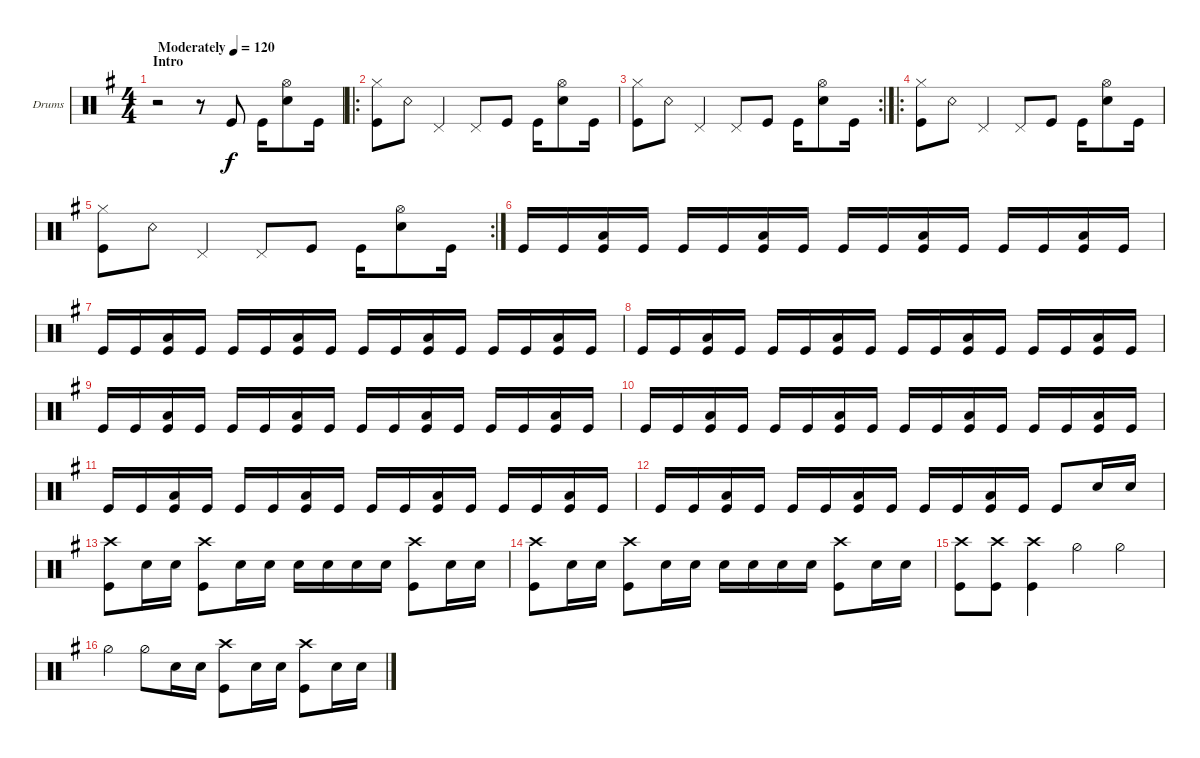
\defaultSystemsLayout 4
\bracketExtendMode groupsimilarinstruments
\firstSystemTrackNameOrientation horizontal
\otherSystemsTrackNameOrientation horizontal
\track ("Drums" "Drums") {instrument percussion}
\staff {score}
\articulation defaults
\ts (4 4)
\section ("" "Intro")
\tempo (120 "Moderately")
\clef neutral
\scale
0.465587
\ks g
r.2{dy f} r.8 "Kick (hit)".8 "Kick (hit)".16 ("Snare (hit) 2" "Hi-Hat (open)").8 "Kick (hit)".16 |
\ro
\scale
0.279352 ("Kick (hit)" "Hi-Hat (closed)").8 "Snare (rim shot)".8 "Pedal Hi-Hat (hit)".4 "Pedal Hi-Hat (hit)".8 "Kick (hit)".8 "Kick (hit)".16 ("Snare (hit) 2" "Hi-Hat (open)").8 "Kick (hit)".16 |
\rc 2
\scale
0.255061 ("Kick (hit)" "Hi-Hat (closed)").8 "Snare (rim shot)".8 "Pedal Hi-Hat (hit)".4 "Pedal Hi-Hat (hit)".8 "Kick (hit)".8 "Kick (hit)".16 ("Snare (hit) 2" "Hi-Hat (open)").8 "Kick (hit)".16 |
\ro
\scale
0.365079 ("Kick (hit)" "Hi-Hat (closed)").8 "Snare (rim shot)".8 "Pedal Hi-Hat (hit)".4 "Pedal Hi-Hat (hit)".8 "Kick (hit)".8 "Kick (hit)".16 ("Snare (hit) 2" "Hi-Hat (open)").8 "Kick (hit)".16 |
\rc 2
\scale
0.333333 ("Kick (hit)" "Hi-Hat (closed)").8 "Snare (rim shot)".8 "Pedal Hi-Hat (hit)".4 "Pedal Hi-Hat (hit)".8 "Kick (hit)".8 "Kick (hit)".16 ("Snare (hit) 2" "Hi-Hat (open)").8 "Kick (hit)".16 |
\scale
0.301587 "Kick (hit)".16 "Kick (hit)".16 ("Kick (hit)" "Low Tom (hit)").16 "Kick (hit)".16 "Kick (hit)".16 "Kick (hit)".16 ("Kick (hit)" "Low Tom (hit)").16 "Kick (hit)".16 "Kick (hit)".16 "Kick (hit)".16 ("Kick (hit)" "Low Tom (hit)").16 "Kick (hit)".16 "Kick (hit)".16 "Kick (hit)".16 ("Kick (hit)" "Low Tom (hit)").16 "Kick (hit)".16 |
\scale
0.333333 "Kick (hit)".16 "Kick (hit)".16 ("Kick (hit)" "Low Tom (hit)").16 "Kick (hit)".16 "Kick (hit)".16 "Kick (hit)".16 ("Kick (hit)" "Low Tom (hit)").16 "Kick (hit)".16 "Kick (hit)".16 "Kick (hit)".16 ("Kick (hit)" "Low Tom (hit)").16 "Kick (hit)".16 "Kick (hit)".16 "Kick (hit)".16 ("Kick (hit)" "Low Tom (hit)").16 "Kick (hit)".16 |
\scale
0.333333 "Kick (hit)".16 "Kick (hit)".16 ("Kick (hit)" "Low Tom (hit)").16 "Kick (hit)".16 "Kick (hit)".16 "Kick (hit)".16 ("Kick (hit)" "Low Tom (hit)").16 "Kick (hit)".16 "Kick (hit)".16 "Kick (hit)".16 ("Kick (hit)" "Low Tom (hit)").16 "Kick (hit)".16 "Kick (hit)".16 "Kick (hit)".16 ("Kick (hit)" "Low Tom (hit)").16 "Kick (hit)".16 |
\scale
0.333333 "Kick (hit)".16 "Kick (hit)".16 ("Kick (hit)" "Low Tom (hit)").16 "Kick (hit)".16 "Kick (hit)".16 "Kick (hit)".16 ("Kick (hit)" "Low Tom (hit)").16 "Kick (hit)".16 "Kick (hit)".16 "Kick (hit)".16 ("Kick (hit)" "Low Tom (hit)").16 "Kick (hit)".16 "Kick (hit)".16 "Kick (hit)".16 ("Kick (hit)" "Low Tom (hit)").16 "Kick (hit)".16 |
\scale
0.333333 "Kick (hit)".16 "Kick (hit)".16 ("Kick (hit)" "Low Tom (hit)").16 "Kick (hit)".16 "Kick (hit)".16 "Kick (hit)".16 ("Kick (hit)" "Low Tom (hit)").16 "Kick (hit)".16 "Kick (hit)".16 "Kick (hit)".16 ("Kick (hit)" "Low Tom (hit)").16 "Kick (hit)".16 "Kick (hit)".16 "Kick (hit)".16 ("Kick (hit)" "Low Tom (hit)").16 "Kick (hit)".16 |
\scale
0.333333 "Kick (hit)".16 "Kick (hit)".16 ("Kick (hit)" "Low Tom (hit)").16 "Kick (hit)".16 "Kick (hit)".16 "Kick (hit)".16 ("Kick (hit)" "Low Tom (hit)").16 "Kick (hit)".16 "Kick (hit)".16 "Kick (hit)".16 ("Kick (hit)" "Low Tom (hit)").16 "Kick (hit)".16 "Kick (hit)".16 "Kick (hit)".16 ("Kick (hit)" "Low Tom (hit)").16 "Kick (hit)".16 |
\scale
0.333333 "Kick (hit)".16 "Kick (hit)".16 ("Kick (hit)" "Low Tom (hit)").16 "Kick (hit)".16 "Kick (hit)".16 "Kick (hit)".16 ("Kick (hit)" "Low Tom (hit)").16 "Kick (hit)".16 "Kick (hit)".16 "Kick (hit)".16 ("Kick (hit)" "Low Tom (hit)").16 "Kick (hit)".16 "Kick (hit)".8 "Snare (hit) 2".16 "Snare (hit) 2".16 |
\scale
0.333333 ("Kick (hit)" "Crash high (hit)").8 "Snare (hit) 2".16 "Snare (hit) 2".16 ("Kick (hit)" "Crash high (hit)").8 "Snare (hit) 2".16 "Snare (hit) 2".16 "Snare (hit) 2".16 "Snare (hit) 2".16 "Snare (hit) 2".16 "Snare (hit) 2".16 ("Kick (hit)" "Crash high (hit)").8 "Snare (hit) 2".16 "Snare (hit) 2".16 |
\scale
0.333333 ("Kick (hit)" "Crash high (hit)").8 "Snare (hit) 2".16 "Snare (hit) 2".16 ("Kick (hit)" "Crash high (hit)").8 "Snare (hit) 2".16 "Snare (hit) 2".16 "Snare (hit) 2".16 "Snare (hit) 2".16 "Snare (hit) 2".16 "Snare (hit) 2".16 ("Kick (hit)" "Crash high (hit)").8 "Snare (hit) 2".16 "Snare (hit) 2".16 |
\scale
0.333333 ("Kick (hit)" "Crash high (hit)").8 ("Kick (hit)" "Crash high (hit)").8 ("Kick (hit)" "Crash high (hit)").4 "Hi-Hat (half)".4 "Hi-Hat (half)".4 |
\scale
0.333333 "Hi-Hat (half)".4 "Hi-Hat (half)".8 "Snare (hit) 2".16 "Snare (hit) 2".16 ("Kick (hit)" "Crash high (hit)").8 "Snare (hit) 2".16 "Snare (hit) 2".16 ("Kick (hit)" "Crash high (hit)").8 "Snare (hit) 2".16 "Snare (hit) 2".16
